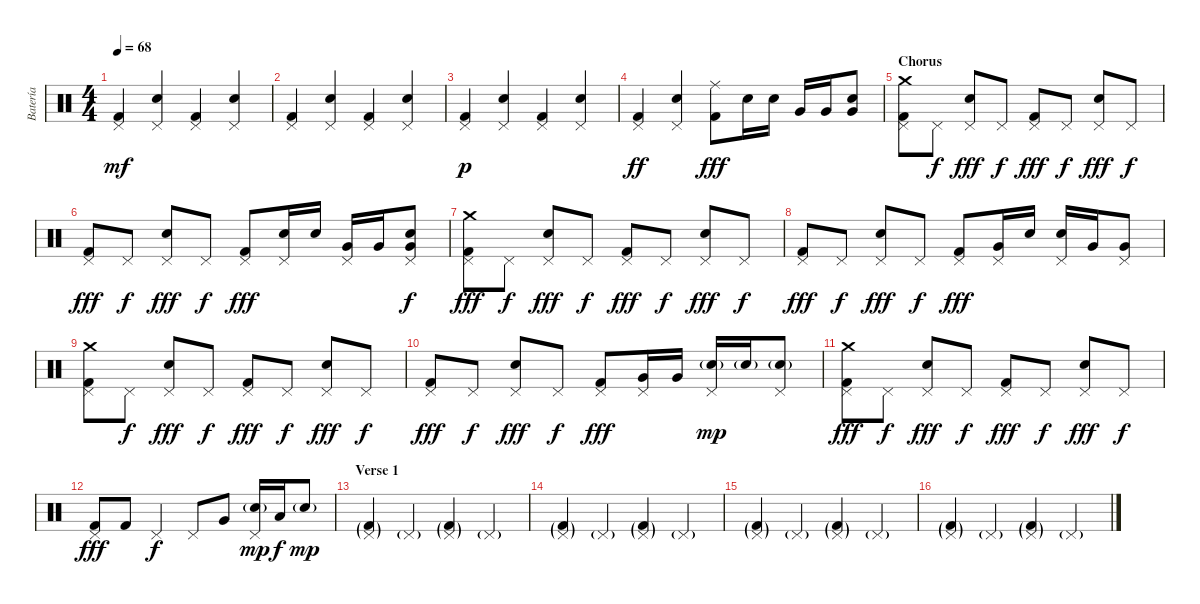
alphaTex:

\track ("Batería" "Batería") {instrument percussion}
\staff {score}
\articulation defaults
\ts (4 4)
\tempo 68
\clef neutral
\ks c
("Pedal Hi-Hat (hit)" "Kick (hit) 2").4{dy mf} ("Pedal Hi-Hat (hit)" "Electric Snare (hit)").4 ("Pedal Hi-Hat (hit)" "Kick (hit) 2").4 ("Pedal Hi-Hat (hit)" "Electric Snare (hit)").4 |
("Pedal Hi-Hat (hit)" "Kick (hit) 2").4 ("Pedal Hi-Hat (hit)" "Electric Snare (hit)").4 ("Pedal Hi-Hat (hit)" "Kick (hit) 2").4 ("Pedal Hi-Hat (hit)" "Electric Snare (hit)").4 |
("Pedal Hi-Hat (hit)" "Kick (hit) 2").4{dy p} ("Pedal Hi-Hat (hit)" "Electric Snare (hit)").4 ("Pedal Hi-Hat (hit)" "Kick (hit) 2").4 ("Pedal Hi-Hat (hit)" "Electric Snare (hit)").4 |
("Pedal Hi-Hat (hit)" "Kick (hit) 2").4{dy ff} ("Pedal Hi-Hat (hit)" "Electric Snare (hit)").4 ("Ride (middle)" "Kick (hit) 2").8{dy fff} "Electric Snare (hit)".16 "Electric Snare (hit)".16 "Very Low Tom (hit)".16 "Very Low Tom (hit)".16 ("Electric Snare (hit)" "Very Low Tom (hit)").8 |
\section ("" "Chorus")
("Pedal Hi-Hat (hit)" "Kick (hit) 2" "Crash medium (hit)").8 "Pedal Hi-Hat (hit)".8{dy f} ("Pedal Hi-Hat (hit)" "Electric Snare (hit)").8{dy fff} "Pedal Hi-Hat (hit)".8{dy f} ("Pedal Hi-Hat (hit)" "Kick (hit) 2").8{dy fff} "Pedal Hi-Hat (hit)".8{dy f} ("Pedal Hi-Hat (hit)" "Electric Snare (hit)").8{dy fff} "Pedal Hi-Hat (hit)".8{dy f} |
("Pedal Hi-Hat (hit)" "Kick (hit) 2").8{dy fff} "Pedal Hi-Hat (hit)".8{dy f} ("Pedal Hi-Hat (hit)" "Electric Snare (hit)").8{dy fff} "Pedal Hi-Hat (hit)".8{dy f} ("Pedal Hi-Hat (hit)" "Kick (hit) 2").8{dy fff} ("Pedal Hi-Hat (hit)" "Electric Snare (hit)").16 "Electric Snare (hit)".16 ("Pedal Hi-Hat (hit)" "Very Low Tom (hit)").16 "Very Low Tom (hit)".16 ("Pedal Hi-Hat (hit)" "Electric Snare (hit)" "Very Low Tom (hit)").8{dy f} |
("Pedal Hi-Hat (hit)" "Kick (hit) 2" "Crash medium (hit)").8{dy fff} "Pedal Hi-Hat (hit)".8{dy f} ("Pedal Hi-Hat (hit)" "Electric Snare (hit)").8{dy fff} "Pedal Hi-Hat (hit)".8{dy f} ("Pedal Hi-Hat (hit)" "Kick (hit) 2").8{dy fff} "Pedal Hi-Hat (hit)".8{dy f} ("Pedal Hi-Hat (hit)" "Electric Snare (hit)").8{dy fff} "Pedal Hi-Hat (hit)".8{dy f} |
("Pedal Hi-Hat (hit)" "Kick (hit) 2").8{dy fff} "Pedal Hi-Hat (hit)".8{dy f} ("Pedal Hi-Hat (hit)" "Electric Snare (hit)").8{dy fff} "Pedal Hi-Hat (hit)".8{dy f} ("Pedal Hi-Hat (hit)" "Kick (hit) 2").8{dy fff} ("Pedal Hi-Hat (hit)" "Very Low Tom (hit)").16 "Electric Snare (hit)".16 ("Pedal Hi-Hat (hit)" "Electric Snare (hit)").16 "Very Low Tom (hit)".16 ("Pedal Hi-Hat (hit)" "Very Low Tom (hit)").8 |
("Pedal Hi-Hat (hit)" "Kick (hit) 2" "Crash medium (hit)").8 "Pedal Hi-Hat (hit)".8{dy f} ("Pedal Hi-Hat (hit)" "Electric Snare (hit)").8{dy fff} "Pedal Hi-Hat (hit)".8{dy f} ("Pedal Hi-Hat (hit)" "Kick (hit) 2").8{dy fff} "Pedal Hi-Hat (hit)".8{dy f} ("Pedal Hi-Hat (hit)" "Electric Snare (hit)").8{dy fff} "Pedal Hi-Hat (hit)".8{dy f} |
("Pedal Hi-Hat (hit)" "Kick (hit) 2").8{dy fff} "Pedal Hi-Hat (hit)".8{dy f} ("Pedal Hi-Hat (hit)" "Electric Snare (hit)").8{dy fff} "Pedal Hi-Hat (hit)".8{dy f} ("Pedal Hi-Hat (hit)" "Kick (hit) 2").8{dy fff} ("Pedal Hi-Hat (hit)" "Very Low Tom (hit)").16 "Very Low Tom (hit)".16 ("Pedal Hi-Hat (hit)" "Electric Snare (hit)"{g}).16{dy mp} "Electric Snare (hit)"{g}.16 ("Pedal Hi-Hat (hit)" "Electric Snare (hit)"{g}).8 |
("Pedal Hi-Hat (hit)" "Kick (hit) 2" "Crash medium (hit)").8{dy fff} "Pedal Hi-Hat (hit)".8{dy f} ("Pedal Hi-Hat (hit)" "Electric Snare (hit)").8{dy fff} "Pedal Hi-Hat (hit)".8{dy f} ("Pedal Hi-Hat (hit)" "Kick (hit) 2").8{dy fff} "Pedal Hi-Hat (hit)".8{dy f} ("Pedal Hi-Hat (hit)" "Electric Snare (hit)").8{dy fff} "Pedal Hi-Hat (hit)".8{dy f} |
("Pedal Hi-Hat (hit)" "Kick (hit) 2").8{dy fff} "Kick (hit) 2".8 "Pedal Hi-Hat (hit)".4{dy f} "Pedal Hi-Hat (hit)".8 "Very Low Tom (hit)".8 ("Pedal Hi-Hat (hit)" "Electric Snare (hit)"{g}).16{dy mp} "Low Floor Tom (hit)".16{dy f} "Electric Snare (hit)"{g}.8{dy mp} |
\section ("" "Verse 1")
("Pedal Hi-Hat (hit)"{g} "Kick (hit) 2"{g}).4 "Pedal Hi-Hat (hit)"{g}.4 ("Pedal Hi-Hat (hit)"{g} "Kick (hit) 2"{g}).4 "Pedal Hi-Hat (hit)"{g}.4 |
("Pedal Hi-Hat (hit)"{g} "Kick (hit) 2"{g}).4 "Pedal Hi-Hat (hit)"{g}.4 ("Pedal Hi-Hat (hit)"{g} "Kick (hit) 2"{g}).4 "Pedal Hi-Hat (hit)"{g}.4 |
("Pedal Hi-Hat (hit)"{g} "Kick (hit) 2"{g}).4 "Pedal Hi-Hat (hit)"{g}.4 ("Pedal Hi-Hat (hit)"{g} "Kick (hit) 2"{g}).4 "Pedal Hi-Hat (hit)"{g}.4 |
("Pedal Hi-Hat (hit)"{g} "Kick (hit) 2"{g}).4 "Pedal Hi-Hat (hit)"{g}.4 ("Pedal Hi-Hat (hit)"{g} "Kick (hit) 2"{g}).4 "Pedal Hi-Hat (hit)"{g}.4
